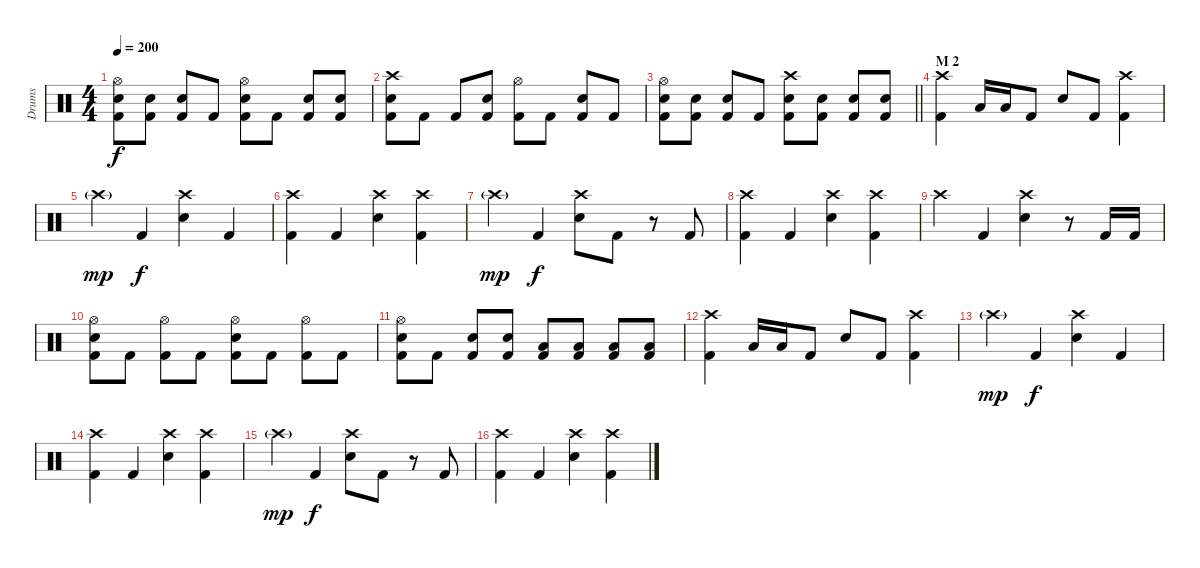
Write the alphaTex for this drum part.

\track ("Drums" "Drums") {instrument percussion}
\staff {score}
\articulation defaults
\ts (4 4)
\tempo 200
\clef neutral
\ks c
("Hi-Hat (open)" "Snare (hit) 2" "Kick (hit) 2").8{dy f} ("Snare (hit) 2" "Kick (hit) 2").8 ("Snare (hit) 2" "Kick (hit) 2").8 "Kick (hit) 2".8 ("Hi-Hat (open)" "Snare (hit) 2" "Kick (hit) 2").8 "Kick (hit) 2".8 ("Snare (hit) 2" "Kick (hit) 2").8 ("Snare (hit) 2" "Kick (hit) 2").8 |
("Crash high (hit)" "Snare (hit) 2" "Kick (hit) 2").8 "Kick (hit) 2".8 "Kick (hit) 2".8 ("Snare (hit) 2" "Kick (hit) 2").8 ("Hi-Hat (open)" "Kick (hit) 2").8 "Kick (hit) 2".8 ("Snare (hit) 2" "Kick (hit) 2").8 "Kick (hit) 2".8 |
\barLineRight lightlight
("Hi-Hat (open)" "Snare (hit) 2" "Kick (hit) 2").8 ("Snare (hit) 2" "Kick (hit) 2").8 ("Snare (hit) 2" "Kick (hit) 2").8 "Kick (hit) 2".8 ("Crash high (hit)" "Snare (hit) 2" "Kick (hit) 2").8 ("Snare (hit) 2" "Kick (hit) 2").8 ("Snare (hit) 2" "Kick (hit) 2").8 ("Snare (hit) 2" "Kick (hit) 2").8 |
\section ("" "M 2")
("Crash high (hit)" "Kick (hit) 2").4 "Low Tom (hit)".16 "Low Tom (hit)".16 "Kick (hit) 2".8 "Snare (hit) 2".8 "Kick (hit) 2".8 ("Crash high (hit)" "Kick (hit) 2").4 |
"Crash high (hit)"{g}.4{dy mp} "Kick (hit) 2".4{dy f} ("Crash high (hit)" "Snare (hit) 2").4 "Kick (hit) 2".4 |
("Crash high (hit)" "Kick (hit) 2").4 "Kick (hit) 2".4 ("Crash high (hit)" "Snare (hit) 2").4 ("Crash high (hit)" "Kick (hit) 2").4 |
"Crash high (hit)"{g}.4{dy mp} "Kick (hit) 2".4{dy f} ("Crash high (hit)" "Snare (hit) 2").8 "Kick (hit) 2".8 r.8 "Kick (hit) 2".8 |
("Crash high (hit)" "Kick (hit) 2").4 "Kick (hit) 2".4 ("Crash high (hit)" "Snare (hit) 2").4 ("Crash high (hit)" "Kick (hit) 2").4 |
"Crash high (hit)".4 "Kick (hit) 2".4 ("Crash high (hit)" "Snare (hit) 2").4 r.8 "Kick (hit) 2".16 "Kick (hit) 2".16 |
("Hi-Hat (open)" "Snare (hit) 2" "Kick (hit) 2").8 "Kick (hit) 2".8 ("Hi-Hat (open)" "Kick (hit) 2").8 "Kick (hit) 2".8 ("Hi-Hat (open)" "Snare (hit) 2" "Kick (hit) 2").8 "Kick (hit) 2".8 ("Hi-Hat (open)" "Kick (hit) 2").8 "Kick (hit) 2".8 |
("Hi-Hat (open)" "Snare (hit) 2" "Kick (hit) 2").8 "Kick (hit) 2".8 ("Snare (hit) 2" "Kick (hit) 2").8 ("Snare (hit) 2" "Kick (hit) 2").8 ("Low Tom (hit)" "Kick (hit) 2").8 ("Low Tom (hit)" "Kick (hit) 2").8 ("Low Tom (hit)" "Kick (hit) 2").8 ("Low Tom (hit)" "Kick (hit) 2").8 |
("Crash high (hit)" "Kick (hit) 2").4 "Low Tom (hit)".16 "Low Tom (hit)".16 "Kick (hit) 2".8 "Snare (hit) 2".8 "Kick (hit) 2".8 ("Crash high (hit)" "Kick (hit) 2").4 |
"Crash high (hit)"{g}.4{dy mp} "Kick (hit) 2".4{dy f} ("Crash high (hit)" "Snare (hit) 2").4 "Kick (hit) 2".4 |
("Crash high (hit)" "Kick (hit) 2").4 "Kick (hit) 2".4 ("Crash high (hit)" "Snare (hit) 2").4 ("Crash high (hit)" "Kick (hit) 2").4 |
"Crash high (hit)"{g}.4{dy mp} "Kick (hit) 2".4{dy f} ("Crash high (hit)" "Snare (hit) 2").8 "Kick (hit) 2".8 r.8 "Kick (hit) 2".8 |
("Crash high (hit)" "Kick (hit) 2").4 "Kick (hit) 2".4 ("Crash high (hit)" "Snare (hit) 2").4 ("Crash high (hit)" "Kick (hit) 2").4
